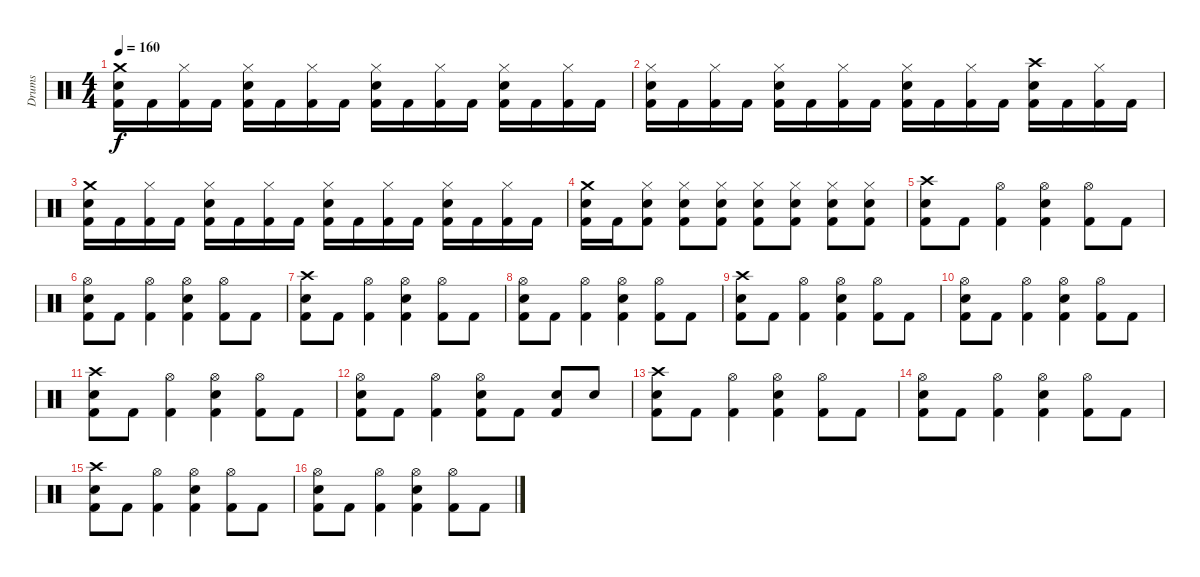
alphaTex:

\track ("Drums" "Drums") {instrument percussion}
\staff {score}
\articulation defaults
\ts (4 4)
\tempo 160
\clef neutral
\ks c
("Crash medium (hit)" "Snare (hit) 2" "Kick (hit) 2").16{dy f} "Kick (hit) 2".16 ("Hi-Hat (closed)" "Kick (hit) 2").16 "Kick (hit) 2".16 ("Hi-Hat (closed)" "Snare (hit) 2" "Kick (hit) 2").16 "Kick (hit) 2".16 ("Hi-Hat (closed)" "Kick (hit) 2").16 "Kick (hit) 2".16 ("Hi-Hat (closed)" "Snare (hit) 2" "Kick (hit) 2").16 "Kick (hit) 2".16 ("Hi-Hat (closed)" "Kick (hit) 2").16 "Kick (hit) 2".16 ("Hi-Hat (closed)" "Snare (hit) 2" "Kick (hit) 2").16 "Kick (hit) 2".16 ("Hi-Hat (closed)" "Kick (hit) 2").16 "Kick (hit) 2".16 |
("Hi-Hat (closed)" "Snare (hit) 2" "Kick (hit) 2").16 "Kick (hit) 2".16 ("Hi-Hat (closed)" "Kick (hit) 2").16 "Kick (hit) 2".16 ("Hi-Hat (closed)" "Snare (hit) 2" "Kick (hit) 2").16 "Kick (hit) 2".16 ("Hi-Hat (closed)" "Kick (hit) 2").16 "Kick (hit) 2".16 ("Hi-Hat (closed)" "Snare (hit) 2" "Kick (hit) 2").16 "Kick (hit) 2".16 ("Hi-Hat (closed)" "Kick (hit) 2").16 "Kick (hit) 2".16 ("Crash high (hit)" "Snare (hit) 2" "Kick (hit) 2").16 "Kick (hit) 2".16 ("Hi-Hat (closed)" "Kick (hit) 2").16 "Kick (hit) 2".16 |
("Crash medium (hit)" "Snare (hit) 2" "Kick (hit) 2").16 "Kick (hit) 2".16 ("Hi-Hat (closed)" "Kick (hit) 2").16 "Kick (hit) 2".16 ("Hi-Hat (closed)" "Snare (hit) 2" "Kick (hit) 2").16 "Kick (hit) 2".16 ("Hi-Hat (closed)" "Kick (hit) 2").16 "Kick (hit) 2".16 ("Hi-Hat (closed)" "Snare (hit) 2" "Kick (hit) 2").16 "Kick (hit) 2".16 ("Hi-Hat (closed)" "Kick (hit) 2").16 "Kick (hit) 2".16 ("Hi-Hat (closed)" "Snare (hit) 2" "Kick (hit) 2").16 "Kick (hit) 2".16 ("Hi-Hat (closed)" "Kick (hit) 2").16 "Kick (hit) 2".16 |
("Crash medium (hit)" "Snare (hit) 2" "Kick (hit) 2").16 "Kick (hit) 2".16 ("Hi-Hat (closed)" "Snare (hit) 2" "Kick (hit) 2").8 ("Hi-Hat (closed)" "Snare (hit) 2" "Kick (hit) 2").8 ("Hi-Hat (closed)" "Snare (hit) 2" "Kick (hit) 2").8 ("Hi-Hat (closed)" "Snare (hit) 2" "Kick (hit) 2").8 ("Hi-Hat (closed)" "Snare (hit) 2" "Kick (hit) 2").8 ("Hi-Hat (closed)" "Snare (hit) 2" "Kick (hit) 2").8 ("Hi-Hat (closed)" "Snare (hit) 2" "Kick (hit) 2").8 |
("Crash high (hit)" "Snare (hit) 2" "Kick (hit) 2").8 "Kick (hit) 2".8 ("Hi-Hat (open)" "Kick (hit) 2").4 ("Hi-Hat (open)" "Snare (hit) 2" "Kick (hit) 2").4 ("Hi-Hat (open)" "Kick (hit) 2").8 "Kick (hit) 2".8 |
("Hi-Hat (open)" "Snare (hit) 2" "Kick (hit) 2").8 "Kick (hit) 2".8 ("Hi-Hat (open)" "Kick (hit) 2").4 ("Hi-Hat (open)" "Snare (hit) 2" "Kick (hit) 2").4 ("Hi-Hat (open)" "Kick (hit) 2").8 "Kick (hit) 2".8 |
("Crash high (hit)" "Snare (hit) 2" "Kick (hit) 2").8 "Kick (hit) 2".8 ("Hi-Hat (open)" "Kick (hit) 2").4 ("Hi-Hat (open)" "Snare (hit) 2" "Kick (hit) 2").4 ("Hi-Hat (open)" "Kick (hit) 2").8 "Kick (hit) 2".8 |
("Hi-Hat (open)" "Snare (hit) 2" "Kick (hit) 2").8 "Kick (hit) 2".8 ("Hi-Hat (open)" "Kick (hit) 2").4 ("Hi-Hat (open)" "Snare (hit) 2" "Kick (hit) 2").4 ("Hi-Hat (open)" "Kick (hit) 2").8 "Kick (hit) 2".8 |
("Crash high (hit)" "Snare (hit) 2" "Kick (hit) 2").8 "Kick (hit) 2".8 ("Hi-Hat (open)" "Kick (hit) 2").4 ("Hi-Hat (open)" "Snare (hit) 2" "Kick (hit) 2").4 ("Hi-Hat (open)" "Kick (hit) 2").8 "Kick (hit) 2".8 |
("Hi-Hat (open)" "Snare (hit) 2" "Kick (hit) 2").8 "Kick (hit) 2".8 ("Hi-Hat (open)" "Kick (hit) 2").4 ("Hi-Hat (open)" "Snare (hit) 2" "Kick (hit) 2").4 ("Hi-Hat (open)" "Kick (hit) 2").8 "Kick (hit) 2".8 |
("Crash high (hit)" "Snare (hit) 2" "Kick (hit) 2").8 "Kick (hit) 2".8 ("Hi-Hat (open)" "Kick (hit) 2").4 ("Hi-Hat (open)" "Snare (hit) 2" "Kick (hit) 2").4 ("Hi-Hat (open)" "Kick (hit) 2").8 "Kick (hit) 2".8 |
("Hi-Hat (open)" "Snare (hit) 2" "Kick (hit) 2").8 "Kick (hit) 2".8 ("Hi-Hat (open)" "Kick (hit) 2").4 ("Hi-Hat (open)" "Snare (hit) 2" "Kick (hit) 2").8 "Kick (hit) 2".8 ("Snare (hit) 2" "Kick (hit) 2").8 "Snare (hit) 2".8 |
("Crash high (hit)" "Snare (hit) 2" "Kick (hit) 2").8 "Kick (hit) 2".8 ("Hi-Hat (open)" "Kick (hit) 2").4 ("Hi-Hat (open)" "Snare (hit) 2" "Kick (hit) 2").4 ("Hi-Hat (open)" "Kick (hit) 2").8 "Kick (hit) 2".8 |
("Hi-Hat (open)" "Snare (hit) 2" "Kick (hit) 2").8 "Kick (hit) 2".8 ("Hi-Hat (open)" "Kick (hit) 2").4 ("Hi-Hat (open)" "Snare (hit) 2" "Kick (hit) 2").4 ("Hi-Hat (open)" "Kick (hit) 2").8 "Kick (hit) 2".8 |
("Crash high (hit)" "Snare (hit) 2" "Kick (hit) 2").8 "Kick (hit) 2".8 ("Hi-Hat (open)" "Kick (hit) 2").4 ("Hi-Hat (open)" "Snare (hit) 2" "Kick (hit) 2").4 ("Hi-Hat (open)" "Kick (hit) 2").8 "Kick (hit) 2".8 |
("Hi-Hat (open)" "Snare (hit) 2" "Kick (hit) 2").8 "Kick (hit) 2".8 ("Hi-Hat (open)" "Kick (hit) 2").4 ("Hi-Hat (open)" "Snare (hit) 2" "Kick (hit) 2").4 ("Hi-Hat (open)" "Kick (hit) 2").8 "Kick (hit) 2".8
